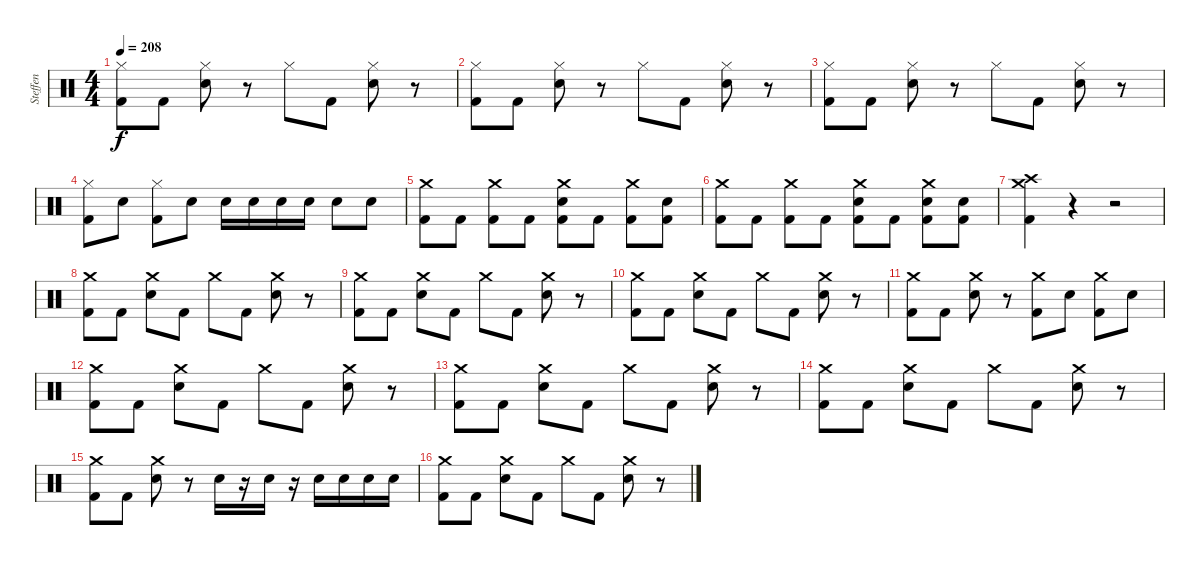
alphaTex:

\track ("Steffen" "Steffen") {instrument percussion}
\staff {score}
\articulation defaults
\ts (4 4)
\tempo 208
\clef neutral
\ks c
("Hi-Hat (closed)" "Kick (hit) 2").8{dy f} "Kick (hit) 2".8 ("Hi-Hat (closed)" "Snare (hit) 2").8 r.8 "Hi-Hat (closed)".8 "Kick (hit) 2".8 ("Hi-Hat (closed)" "Snare (hit) 2").8 r.8 |
("Hi-Hat (closed)" "Kick (hit) 2").8 "Kick (hit) 2".8 ("Hi-Hat (closed)" "Snare (hit) 2").8 r.8 "Hi-Hat (closed)".8 "Kick (hit) 2".8 ("Hi-Hat (closed)" "Snare (hit) 2").8 r.8 |
("Hi-Hat (closed)" "Kick (hit) 2").8 "Kick (hit) 2".8 ("Hi-Hat (closed)" "Snare (hit) 2").8 r.8 "Hi-Hat (closed)".8 "Kick (hit) 2".8 ("Hi-Hat (closed)" "Snare (hit) 2").8 r.8 |
("Hi-Hat (closed)" "Kick (hit) 2").8 "Snare (hit) 2".8 ("Hi-Hat (closed)" "Kick (hit) 2").8 "Snare (hit) 2".8 "Snare (hit) 2".16 "Snare (hit) 2".16 "Snare (hit) 2".16 "Snare (hit) 2".16 "Snare (hit) 2".8 "Snare (hit) 2".8 |
("Crash medium (hit)" "Kick (hit) 2").8 "Kick (hit) 2".8 ("Crash medium (hit)" "Kick (hit) 2").8 "Kick (hit) 2".8 ("Crash medium (hit)" "Snare (hit) 2" "Kick (hit) 2").8 "Kick (hit) 2".8 ("Crash medium (hit)" "Kick (hit) 2").8 ("Snare (hit) 2" "Kick (hit) 2").8 |
("Crash medium (hit)" "Kick (hit) 2").8 "Kick (hit) 2".8 ("Crash medium (hit)" "Kick (hit) 2").8 "Kick (hit) 2".8 ("Crash medium (hit)" "Snare (hit) 2" "Kick (hit) 2").8 "Kick (hit) 2".8 ("Crash medium (hit)" "Snare (hit) 2" "Kick (hit) 2").8 ("Snare (hit) 2" "Kick (hit) 2").8 |
("Crash medium (hit)" "Crash high (hit)" "Kick (hit) 2").4 r.4 r.2 |
("Crash medium (hit)" "Kick (hit) 2").8 "Kick (hit) 2".8 ("Crash medium (hit)" "Snare (hit) 2").8 "Kick (hit) 2".8 "Crash medium (hit)".8 "Kick (hit) 2".8 ("Crash medium (hit)" "Snare (hit) 2").8 r.8 |
("Crash medium (hit)" "Kick (hit) 2").8 "Kick (hit) 2".8 ("Crash medium (hit)" "Snare (hit) 2").8 "Kick (hit) 2".8 "Crash medium (hit)".8 "Kick (hit) 2".8 ("Crash medium (hit)" "Snare (hit) 2").8 r.8 |
("Crash medium (hit)" "Kick (hit) 2").8 "Kick (hit) 2".8 ("Crash medium (hit)" "Snare (hit) 2").8 "Kick (hit) 2".8 "Crash medium (hit)".8 "Kick (hit) 2".8 ("Crash medium (hit)" "Snare (hit) 2").8 r.8 |
("Crash medium (hit)" "Kick (hit) 2").8 "Kick (hit) 2".8 ("Crash medium (hit)" "Snare (hit) 2").8 r.8 ("Crash medium (hit)" "Kick (hit) 2").8 "Snare (hit) 2".8 ("Crash medium (hit)" "Kick (hit) 2").8 "Snare (hit) 2".8 |
("Crash medium (hit)" "Kick (hit) 2").8 "Kick (hit) 2".8 ("Crash medium (hit)" "Snare (hit) 2").8 "Kick (hit) 2".8 "Crash medium (hit)".8 "Kick (hit) 2".8 ("Crash medium (hit)" "Snare (hit) 2").8 r.8 |
("Crash medium (hit)" "Kick (hit) 2").8 "Kick (hit) 2".8 ("Crash medium (hit)" "Snare (hit) 2").8 "Kick (hit) 2".8 "Crash medium (hit)".8 "Kick (hit) 2".8 ("Crash medium (hit)" "Snare (hit) 2").8 r.8 |
("Crash medium (hit)" "Kick (hit) 2").8 "Kick (hit) 2".8 ("Crash medium (hit)" "Snare (hit) 2").8 "Kick (hit) 2".8 "Crash medium (hit)".8 "Kick (hit) 2".8 ("Crash medium (hit)" "Snare (hit) 2").8 r.8 |
("Crash medium (hit)" "Kick (hit) 2").8 "Kick (hit) 2".8 ("Crash medium (hit)" "Snare (hit) 2").8 r.8 "Snare (hit) 2".16 r.16 "Snare (hit) 2".16 r.16 "Snare (hit) 2".16 "Snare (hit) 2".16 "Snare (hit) 2".16 "Snare (hit) 2".16 |
("Crash medium (hit)" "Kick (hit) 2").8 "Kick (hit) 2".8 ("Crash medium (hit)" "Snare (hit) 2").8 "Kick (hit) 2".8 "Crash medium (hit)".8 "Kick (hit) 2".8 ("Crash medium (hit)" "Snare (hit) 2").8 r.8
